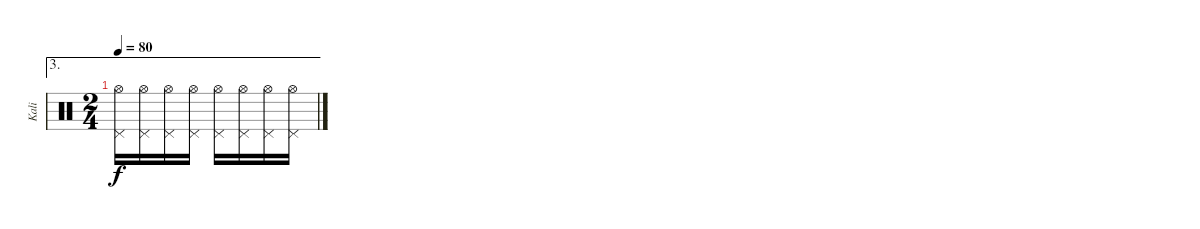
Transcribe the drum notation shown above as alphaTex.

\track ("Kali" "Kali") {instrument percussion}
\staff {score}
\articulation defaults
\ae 3
\ts (2 4)
\tempo 80
\clef neutral
\ks c
("Hi-Hat (open)" "Pedal Hi-Hat (hit)").16{dy f} ("Hi-Hat (open)" "Pedal Hi-Hat (hit)").16 ("Hi-Hat (open)" "Pedal Hi-Hat (hit)").16 ("Hi-Hat (open)" "Pedal Hi-Hat (hit)").16 ("Hi-Hat (open)" "Pedal Hi-Hat (hit)").16 ("Hi-Hat (open)" "Pedal Hi-Hat (hit)").16 ("Hi-Hat (open)" "Pedal Hi-Hat (hit)").16 ("Hi-Hat (open)" "Pedal Hi-Hat (hit)").16
